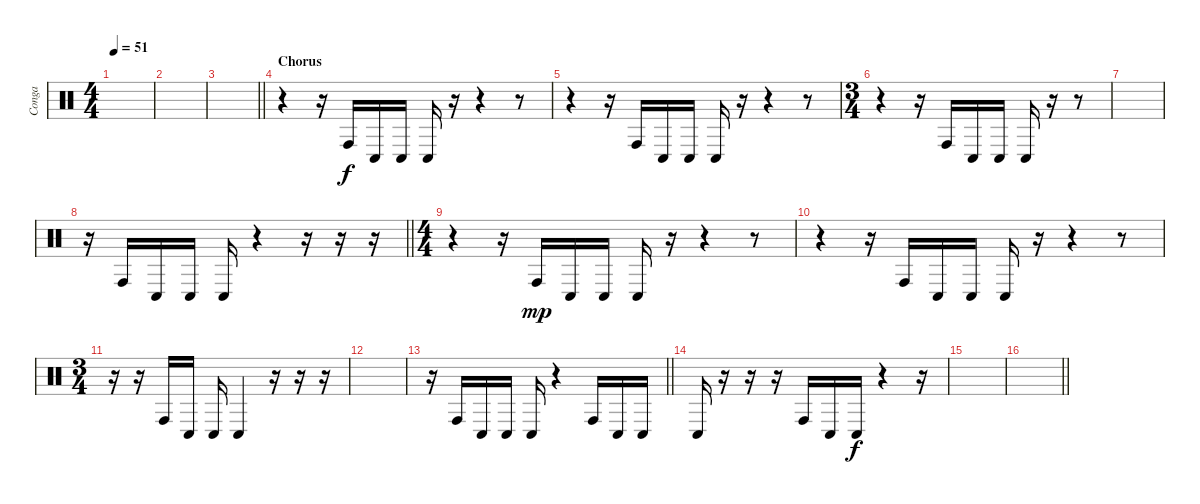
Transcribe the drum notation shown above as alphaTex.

\track ("Conga" "Conga") {instrument percussion}
\staff {score}
\articulation defaults
\ts (4 4)
\tempo 51
\clef neutral
\ks c
|
|
\barLineRight lightlight
|
\section ("" "Chorus")
r.4 r.16 "Conga high (hit)".16 "Conga low (hit)".16 "Conga low (hit)".16 "Conga low (hit)".16 r.16 r.4 r.8 |
r.4 r.16 "Conga high (hit)".16 "Conga low (hit)".16 "Conga low (hit)".16 "Conga low (hit)".16 r.16 r.4 r.8 |
\ts (3 4)
r.4 r.16 "Conga high (hit)".16 "Conga low (hit)".16 "Conga low (hit)".16 "Conga low (hit)".16 r.16 r.8 |
|
\barLineRight lightlight
r.16 "Conga high (hit)".16{dy f} "Conga low (hit)".16 "Conga low (hit)".16 "Conga low (hit)".16 r.4 r.16 r.16 r.16 |
\ts (4 4)
r.4 r.16 "Conga high (hit)".16{dy mp} "Conga low (hit)".16 "Conga low (hit)".16 "Conga low (hit)".16 r.16 r.4 r.8 |
r.4 r.16 "Conga high (hit)".16 "Conga low (hit)".16 "Conga low (hit)".16 "Conga low (hit)".16 r.16 r.4 r.8 |
\ts (3 4)
r.16 r.16 "Conga high (hit)".16 "Conga low (hit)".16 "Conga low (hit)".16 "Conga low (hit)".4 r.16 r.16 r.16 |
|
\barLineRight lightlight
r.16 "Conga high (hit)".16 "Conga low (hit)".16 "Conga low (hit)".16 "Conga low (hit)".16 r.4 "Conga high (hit)".16 "Conga low (hit)".16 "Conga low (hit)".16 |
"Conga low (hit)".16 r.16 r.16 r.16 "Conga high (hit)".16 "Conga low (hit)".16 "Conga low (hit)".16{dy f} r.4 r.16 |
|
\barLineRight lightlight
